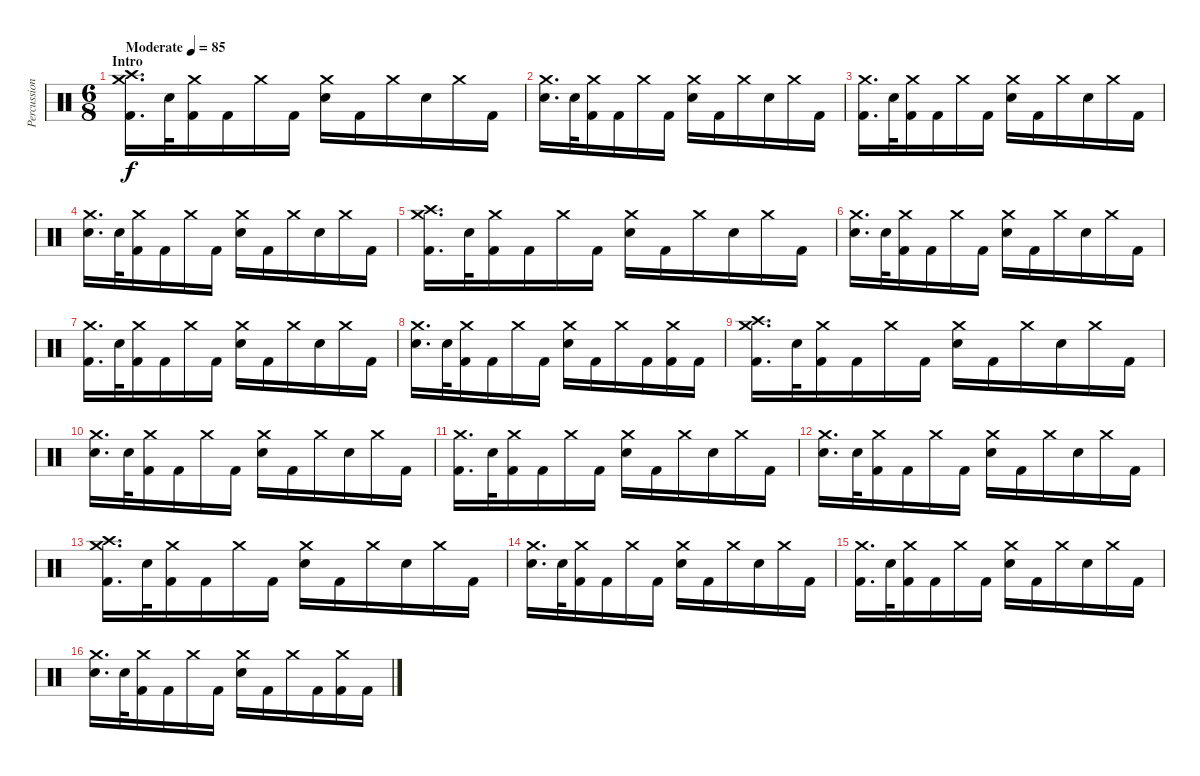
\track ("Percussion" "Percussion") {instrument percussion}
\staff {score}
\articulation defaults
\ts (6 8)
\section ("" "Intro")
\tempo (85 "Moderate")
\clef neutral
\ks c
("Crash medium (hit)" "Crash high (hit)" "Kick (hit) 2").16{d dy f} "Electric Snare (hit)".32 ("Crash medium (hit)" "Kick (hit) 2").16 "Kick (hit) 2".16 "Crash medium (hit)".16 "Kick (hit) 2".16 ("Crash medium (hit)" "Electric Snare (hit)").16 "Kick (hit) 2".16 "Crash medium (hit)".16 "Electric Snare (hit)".16 "Crash medium (hit)".16 "Kick (hit) 2".16 |
("Crash medium (hit)" "Electric Snare (hit)").16{d} "Electric Snare (hit)".32 ("Crash medium (hit)" "Kick (hit) 2").16 "Kick (hit) 2".16 "Crash medium (hit)".16 "Kick (hit) 2".16 ("Crash medium (hit)" "Electric Snare (hit)").16 "Kick (hit) 2".16 "Crash medium (hit)".16 "Electric Snare (hit)".16 "Crash medium (hit)".16 "Kick (hit) 2".16 |
("Crash medium (hit)" "Kick (hit) 2").16{d} "Electric Snare (hit)".32 ("Crash medium (hit)" "Kick (hit) 2").16 "Kick (hit) 2".16 "Crash medium (hit)".16 "Kick (hit) 2".16 ("Crash medium (hit)" "Electric Snare (hit)").16 "Kick (hit) 2".16 "Crash medium (hit)".16 "Electric Snare (hit)".16 "Crash medium (hit)".16 "Kick (hit) 2".16 |
("Crash medium (hit)" "Electric Snare (hit)").16{d} "Electric Snare (hit)".32 ("Crash medium (hit)" "Kick (hit) 2").16 "Kick (hit) 2".16 "Crash medium (hit)".16 "Kick (hit) 2".16 ("Crash medium (hit)" "Electric Snare (hit)").16 "Kick (hit) 2".16 "Crash medium (hit)".16 "Electric Snare (hit)".16 "Crash medium (hit)".16 "Kick (hit) 2".16 |
("Crash medium (hit)" "Crash high (hit)" "Kick (hit) 2").16{d} "Electric Snare (hit)".32 ("Crash medium (hit)" "Kick (hit) 2").16 "Kick (hit) 2".16 "Crash medium (hit)".16 "Kick (hit) 2".16 ("Crash medium (hit)" "Electric Snare (hit)").16 "Kick (hit) 2".16 "Crash medium (hit)".16 "Electric Snare (hit)".16 "Crash medium (hit)".16 "Kick (hit) 2".16 |
("Crash medium (hit)" "Electric Snare (hit)").16{d} "Electric Snare (hit)".32 ("Crash medium (hit)" "Kick (hit) 2").16 "Kick (hit) 2".16 "Crash medium (hit)".16 "Kick (hit) 2".16 ("Crash medium (hit)" "Electric Snare (hit)").16 "Kick (hit) 2".16 "Crash medium (hit)".16 "Electric Snare (hit)".16 "Crash medium (hit)".16 "Kick (hit) 2".16 |
("Crash medium (hit)" "Kick (hit) 2").16{d} "Electric Snare (hit)".32 ("Crash medium (hit)" "Kick (hit) 2").16 "Kick (hit) 2".16 "Crash medium (hit)".16 "Kick (hit) 2".16 ("Crash medium (hit)" "Electric Snare (hit)").16 "Kick (hit) 2".16 "Crash medium (hit)".16 "Electric Snare (hit)".16 "Crash medium (hit)".16 "Kick (hit) 2".16 |
("Crash medium (hit)" "Electric Snare (hit)").16{d} "Electric Snare (hit)".32 ("Crash medium (hit)" "Kick (hit) 2").16 "Kick (hit) 2".16 "Crash medium (hit)".16 "Kick (hit) 2".16 ("Crash medium (hit)" "Electric Snare (hit)").16 "Kick (hit) 2".16 "Crash medium (hit)".16 "Kick (hit) 2".16 ("Crash medium (hit)" "Kick (hit) 2").16 "Kick (hit) 2".16 |
("Crash medium (hit)" "Crash high (hit)" "Kick (hit) 2").16{d} "Electric Snare (hit)".32 ("Crash medium (hit)" "Kick (hit) 2").16 "Kick (hit) 2".16 "Crash medium (hit)".16 "Kick (hit) 2".16 ("Crash medium (hit)" "Electric Snare (hit)").16 "Kick (hit) 2".16 "Crash medium (hit)".16 "Electric Snare (hit)".16 "Crash medium (hit)".16 "Kick (hit) 2".16 |
("Crash medium (hit)" "Electric Snare (hit)").16{d} "Electric Snare (hit)".32 ("Crash medium (hit)" "Kick (hit) 2").16 "Kick (hit) 2".16 "Crash medium (hit)".16 "Kick (hit) 2".16 ("Crash medium (hit)" "Electric Snare (hit)").16 "Kick (hit) 2".16 "Crash medium (hit)".16 "Electric Snare (hit)".16 "Crash medium (hit)".16 "Kick (hit) 2".16 |
("Crash medium (hit)" "Kick (hit) 2").16{d} "Electric Snare (hit)".32 ("Crash medium (hit)" "Kick (hit) 2").16 "Kick (hit) 2".16 "Crash medium (hit)".16 "Kick (hit) 2".16 ("Crash medium (hit)" "Electric Snare (hit)").16 "Kick (hit) 2".16 "Crash medium (hit)".16 "Electric Snare (hit)".16 "Crash medium (hit)".16 "Kick (hit) 2".16 |
("Crash medium (hit)" "Electric Snare (hit)").16{d} "Electric Snare (hit)".32 ("Crash medium (hit)" "Kick (hit) 2").16 "Kick (hit) 2".16 "Crash medium (hit)".16 "Kick (hit) 2".16 ("Crash medium (hit)" "Electric Snare (hit)").16 "Kick (hit) 2".16 "Crash medium (hit)".16 "Electric Snare (hit)".16 "Crash medium (hit)".16 "Kick (hit) 2".16 |
("Crash medium (hit)" "Crash high (hit)" "Kick (hit) 2").16{d} "Electric Snare (hit)".32 ("Crash medium (hit)" "Kick (hit) 2").16 "Kick (hit) 2".16 "Crash medium (hit)".16 "Kick (hit) 2".16 ("Crash medium (hit)" "Electric Snare (hit)").16 "Kick (hit) 2".16 "Crash medium (hit)".16 "Electric Snare (hit)".16 "Crash medium (hit)".16 "Kick (hit) 2".16 |
("Crash medium (hit)" "Electric Snare (hit)").16{d} "Electric Snare (hit)".32 ("Crash medium (hit)" "Kick (hit) 2").16 "Kick (hit) 2".16 "Crash medium (hit)".16 "Kick (hit) 2".16 ("Crash medium (hit)" "Electric Snare (hit)").16 "Kick (hit) 2".16 "Crash medium (hit)".16 "Electric Snare (hit)".16 "Crash medium (hit)".16 "Kick (hit) 2".16 |
("Crash medium (hit)" "Kick (hit) 2").16{d} "Electric Snare (hit)".32 ("Crash medium (hit)" "Kick (hit) 2").16 "Kick (hit) 2".16 "Crash medium (hit)".16 "Kick (hit) 2".16 ("Crash medium (hit)" "Electric Snare (hit)").16 "Kick (hit) 2".16 "Crash medium (hit)".16 "Electric Snare (hit)".16 "Crash medium (hit)".16 "Kick (hit) 2".16 |
("Crash medium (hit)" "Electric Snare (hit)").16{d} "Electric Snare (hit)".32 ("Crash medium (hit)" "Kick (hit) 2").16 "Kick (hit) 2".16 "Crash medium (hit)".16 "Kick (hit) 2".16 ("Crash medium (hit)" "Electric Snare (hit)").16 "Kick (hit) 2".16 "Crash medium (hit)".16 "Kick (hit) 2".16 ("Crash medium (hit)" "Kick (hit) 2").16 "Kick (hit) 2".16
